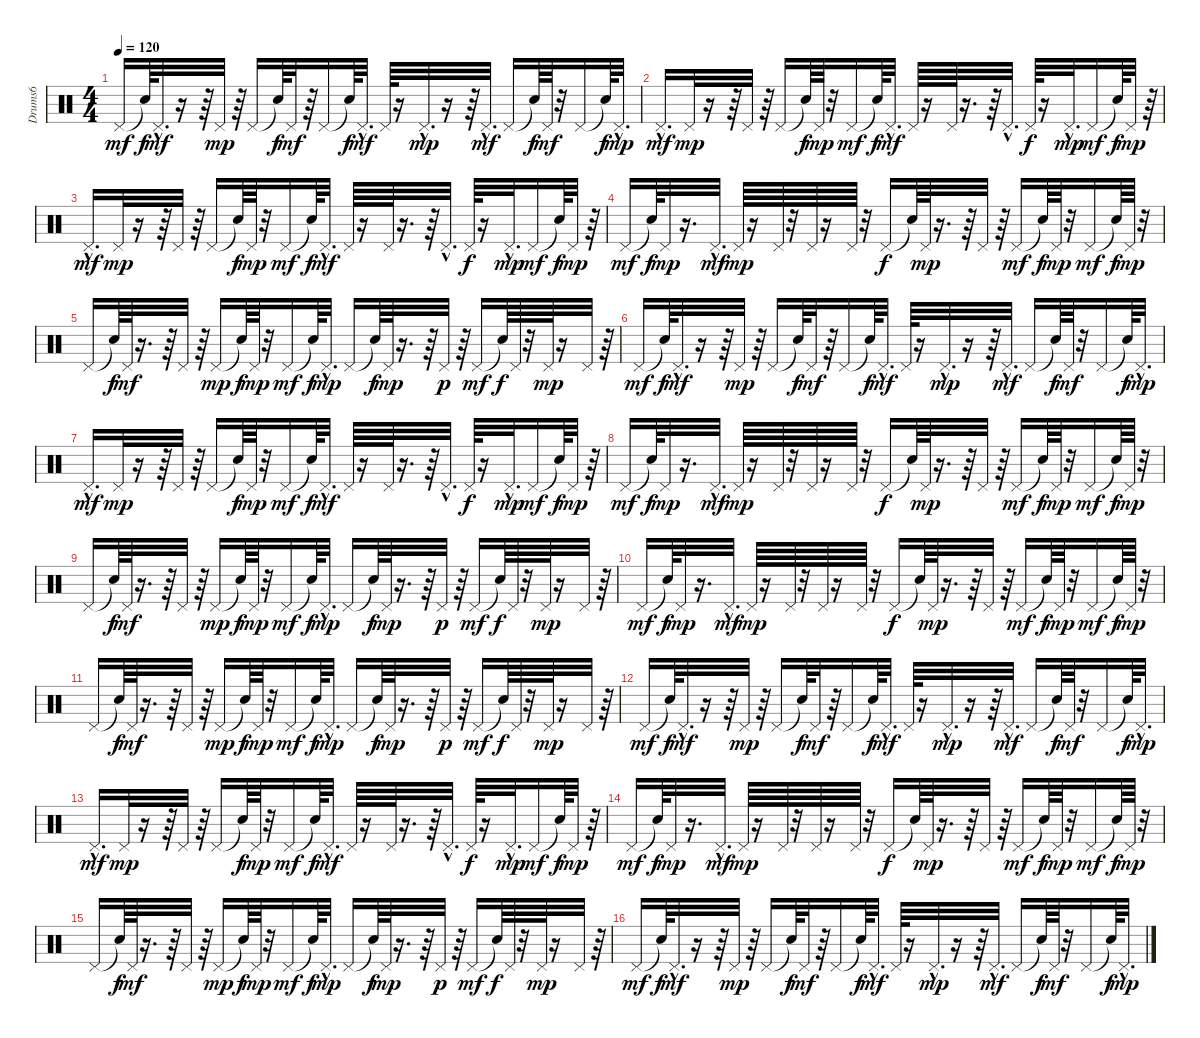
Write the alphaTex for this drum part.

\track ("Drums6" "Drums6") {instrument percussion}
\staff {score}
\articulation defaults
\ts (4 4)
\tempo 120
\clef neutral
\ks c "Pedal Hi-Hat (hit)".16{dy mf} "Snare (hit)"{t}.64{dy f} "Pedal Hi-Hat (hit)"{hac}.32{d dy mf}
r.16 r.64 "Pedal Hi-Hat (hit)".32{dy mp} r.64 "Pedal Hi-Hat (hit)".16 "Snare (hit)"{t}.64{dy f} "Pedal Hi-Hat (hit)".32{dy mf} r.64 "Pedal Hi-Hat (hit)".16 "Snare (hit)"{t}.64{dy f} "Pedal Hi-Hat (hit)"{hac}.32{d dy mf} "Pedal Hi-Hat (hit)".64 r.16 "Pedal Hi-Hat (hit)"{hac}.32{d dy mp} r.16 r.64 "Pedal Hi-Hat (hit)"{hac}.32{d dy mf} "Pedal Hi-Hat (hit)".16 "Snare (hit)"{t}.64{dy f} "Pedal Hi-Hat (hit)".64{dy mf} r.32 "Pedal Hi-Hat (hit)".16 "Snare (hit)"{t}.64{dy f} "Pedal Hi-Hat (hit)"{hac}.32{d dy mp} |
"Pedal Hi-Hat (hit)"{hac}.16{d dy mf} "Pedal Hi-Hat (hit)".32{dy mp} r.16 r.64 "Pedal Hi-Hat (hit)".32 r.64 "Pedal Hi-Hat (hit)".16 "Snare (hit)"{t}.64{dy f} "Pedal Hi-Hat (hit)".64{dy mp} r.32 "Pedal Hi-Hat (hit)".16{dy mf} "Snare (hit)"{t}.64{dy f} "Pedal Hi-Hat (hit)"{hac}.32{d dy mf} "Pedal Hi-Hat (hit)".64 r.16 "Pedal Hi-Hat (hit)".64 r.16{d} r.64 "Pedal Hi-Hat (hit)"{hac}.32{d} "Pedal Hi-Hat (hit)".64{dy f} r.16 "Pedal Hi-Hat (hit)"{hac}.32{d dy mp} "Pedal Hi-Hat (hit)".16{dy mf} "Snare (hit)"{t}.64{dy f} "Pedal Hi-Hat (hit)".32{dy mp} r.64 |
"Pedal Hi-Hat (hit)"{hac}.16{d dy mf} "Pedal Hi-Hat (hit)".32{dy mp} r.16 r.64 "Pedal Hi-Hat (hit)".32 r.64 "Pedal Hi-Hat (hit)".16 "Snare (hit)"{t}.64{dy f} "Pedal Hi-Hat (hit)".64{dy mp} r.32 "Pedal Hi-Hat (hit)".16{dy mf} "Snare (hit)"{t}.64{dy f} "Pedal Hi-Hat (hit)"{hac}.32{d dy mf} "Pedal Hi-Hat (hit)".64 r.16 "Pedal Hi-Hat (hit)".64 r.16{d} r.64 "Pedal Hi-Hat (hit)"{hac}.32{d} "Pedal Hi-Hat (hit)".64{dy f} r.16 "Pedal Hi-Hat (hit)"{hac}.32{d dy mp} "Pedal Hi-Hat (hit)".16{dy mf} "Snare (hit)"{t}.64{dy f} "Pedal Hi-Hat (hit)".32{dy mp} r.64 |
"Pedal Hi-Hat (hit)".16{dy mf} "Snare (hit)"{t}.64{dy f} "Pedal Hi-Hat (hit)".32{dy mp} r.16{d} "Pedal Hi-Hat (hit)"{hac}.32{d dy mf} "Pedal Hi-Hat (hit)".64{dy mp} r.16 "Pedal Hi-Hat (hit)".64 r.32 "Pedal Hi-Hat (hit)".64 r.16 "Pedal Hi-Hat (hit)".64 r.32 "Pedal Hi-Hat (hit)".16{dy f} "Snare (hit)"{t}.64 "Pedal Hi-Hat (hit)".64{dy mp} r.16{d} r.64 "Pedal Hi-Hat (hit)".32 r.64 "Pedal Hi-Hat (hit)".16{dy mf} "Snare (hit)"{t}.64{dy f} "Pedal Hi-Hat (hit)".64{dy mp} r.32 "Pedal Hi-Hat (hit)".16{dy mf} "Snare (hit)"{t}.64{dy f} "Pedal Hi-Hat (hit)".64{dy mp} r.32 |
"Pedal Hi-Hat (hit)".16 "Snare (hit)"{t}.64{dy f} "Pedal Hi-Hat (hit)".64{dy mf} r.16{d} r.64 "Pedal Hi-Hat (hit)".32 r.64 "Pedal Hi-Hat (hit)".16{dy mp} "Snare (hit)"{t}.64{dy f} "Pedal Hi-Hat (hit)".64{dy mp} r.32 "Pedal Hi-Hat (hit)".16{dy mf} "Snare (hit)"{t}.64{dy f} "Pedal Hi-Hat (hit)"{hac}.32{d dy mp} "Pedal Hi-Hat (hit)".16 "Snare (hit)"{t}.64{dy f} "Pedal Hi-Hat (hit)".64{dy mp} r.16{d} r.64 "Pedal Hi-Hat (hit)".32{dy p} r.64 "Pedal Hi-Hat (hit)".16{dy mf} "Snare (hit)"{t}.64{dy f} "Pedal Hi-Hat (hit)".64 r.32 "Pedal Hi-Hat (hit)".64{dy mp} r.16 "Pedal Hi-Hat (hit)".32 r.64 |
"Pedal Hi-Hat (hit)".16{dy mf} "Snare (hit)"{t}.64{dy f} "Pedal Hi-Hat (hit)"{hac}.32{d dy mf} r.16 r.64 "Pedal Hi-Hat (hit)".32{dy mp} r.64 "Pedal Hi-Hat (hit)".16 "Snare (hit)"{t}.64{dy f} "Pedal Hi-Hat (hit)".32{dy mf} r.64 "Pedal Hi-Hat (hit)".16 "Snare (hit)"{t}.64{dy f} "Pedal Hi-Hat (hit)"{hac}.32{d dy mf} "Pedal Hi-Hat (hit)".64 r.16 "Pedal Hi-Hat (hit)"{hac}.32{d dy mp} r.16 r.64 "Pedal Hi-Hat (hit)"{hac}.32{d dy mf} "Pedal Hi-Hat (hit)".16 "Snare (hit)"{t}.64{dy f} "Pedal Hi-Hat (hit)".64{dy mf} r.32 "Pedal Hi-Hat (hit)".16 "Snare (hit)"{t}.64{dy f} "Pedal Hi-Hat (hit)"{hac}.32{d dy mp} |
"Pedal Hi-Hat (hit)"{hac}.16{d dy mf} "Pedal Hi-Hat (hit)".32{dy mp} r.16 r.64 "Pedal Hi-Hat (hit)".32 r.64 "Pedal Hi-Hat (hit)".16 "Snare (hit)"{t}.64{dy f} "Pedal Hi-Hat (hit)".64{dy mp} r.32 "Pedal Hi-Hat (hit)".16{dy mf} "Snare (hit)"{t}.64{dy f} "Pedal Hi-Hat (hit)"{hac}.32{d dy mf} "Pedal Hi-Hat (hit)".64 r.16 "Pedal Hi-Hat (hit)".64 r.16{d} r.64 "Pedal Hi-Hat (hit)"{hac}.32{d} "Pedal Hi-Hat (hit)".64{dy f} r.16 "Pedal Hi-Hat (hit)"{hac}.32{d dy mp} "Pedal Hi-Hat (hit)".16{dy mf} "Snare (hit)"{t}.64{dy f} "Pedal Hi-Hat (hit)".32{dy mp} r.64 |
"Pedal Hi-Hat (hit)".16{dy mf} "Snare (hit)"{t}.64{dy f} "Pedal Hi-Hat (hit)".32{dy mp} r.16{d} "Pedal Hi-Hat (hit)"{hac}.32{d dy mf} "Pedal Hi-Hat (hit)".64{dy mp} r.16 "Pedal Hi-Hat (hit)".64 r.32 "Pedal Hi-Hat (hit)".64 r.16 "Pedal Hi-Hat (hit)".64 r.32 "Pedal Hi-Hat (hit)".16{dy f} "Snare (hit)"{t}.64 "Pedal Hi-Hat (hit)".64{dy mp} r.16{d} r.64 "Pedal Hi-Hat (hit)".32 r.64 "Pedal Hi-Hat (hit)".16{dy mf} "Snare (hit)"{t}.64{dy f} "Pedal Hi-Hat (hit)".64{dy mp} r.32 "Pedal Hi-Hat (hit)".16{dy mf} "Snare (hit)"{t}.64{dy f} "Pedal Hi-Hat (hit)".64{dy mp} r.32 |
"Pedal Hi-Hat (hit)".16 "Snare (hit)"{t}.64{dy f} "Pedal Hi-Hat (hit)".64{dy mf} r.16{d} r.64 "Pedal Hi-Hat (hit)".32 r.64 "Pedal Hi-Hat (hit)".16{dy mp} "Snare (hit)"{t}.64{dy f} "Pedal Hi-Hat (hit)".64{dy mp} r.32 "Pedal Hi-Hat (hit)".16{dy mf} "Snare (hit)"{t}.64{dy f} "Pedal Hi-Hat (hit)"{hac}.32{d dy mp} "Pedal Hi-Hat (hit)".16 "Snare (hit)"{t}.64{dy f} "Pedal Hi-Hat (hit)".64{dy mp} r.16{d} r.64 "Pedal Hi-Hat (hit)".32{dy p} r.64 "Pedal Hi-Hat (hit)".16{dy mf} "Snare (hit)"{t}.64{dy f} "Pedal Hi-Hat (hit)".64 r.32 "Pedal Hi-Hat (hit)".64{dy mp} r.16 "Pedal Hi-Hat (hit)".32 r.64 |
"Pedal Hi-Hat (hit)".16{dy mf} "Snare (hit)"{t}.64{dy f} "Pedal Hi-Hat (hit)".32{dy mp} r.16{d} "Pedal Hi-Hat (hit)"{hac}.32{d dy mf} "Pedal Hi-Hat (hit)".64{dy mp} r.16 "Pedal Hi-Hat (hit)".64 r.32 "Pedal Hi-Hat (hit)".64 r.16 "Pedal Hi-Hat (hit)".64 r.32 "Pedal Hi-Hat (hit)".16{dy f} "Snare (hit)"{t}.64 "Pedal Hi-Hat (hit)".64{dy mp} r.16{d} r.64 "Pedal Hi-Hat (hit)".32 r.64 "Pedal Hi-Hat (hit)".16{dy mf} "Snare (hit)"{t}.64{dy f} "Pedal Hi-Hat (hit)".64{dy mp} r.32 "Pedal Hi-Hat (hit)".16{dy mf} "Snare (hit)"{t}.64{dy f} "Pedal Hi-Hat (hit)".64{dy mp} r.32 |
"Pedal Hi-Hat (hit)".16 "Snare (hit)"{t}.64{dy f} "Pedal Hi-Hat (hit)".64{dy mf} r.16{d} r.64 "Pedal Hi-Hat (hit)".32 r.64 "Pedal Hi-Hat (hit)".16{dy mp} "Snare (hit)"{t}.64{dy f} "Pedal Hi-Hat (hit)".64{dy mp} r.32 "Pedal Hi-Hat (hit)".16{dy mf} "Snare (hit)"{t}.64{dy f} "Pedal Hi-Hat (hit)"{hac}.32{d dy mp} "Pedal Hi-Hat (hit)".16 "Snare (hit)"{t}.64{dy f} "Pedal Hi-Hat (hit)".64{dy mp} r.16{d} r.64 "Pedal Hi-Hat (hit)".32{dy p} r.64 "Pedal Hi-Hat (hit)".16{dy mf} "Snare (hit)"{t}.64{dy f} "Pedal Hi-Hat (hit)".64 r.32 "Pedal Hi-Hat (hit)".64{dy mp} r.16 "Pedal Hi-Hat (hit)".32 r.64 |
"Pedal Hi-Hat (hit)".16{dy mf} "Snare (hit)"{t}.64{dy f} "Pedal Hi-Hat (hit)"{hac}.32{d dy mf} r.16 r.64 "Pedal Hi-Hat (hit)".32{dy mp} r.64 "Pedal Hi-Hat (hit)".16 "Snare (hit)"{t}.64{dy f} "Pedal Hi-Hat (hit)".32{dy mf} r.64 "Pedal Hi-Hat (hit)".16 "Snare (hit)"{t}.64{dy f} "Pedal Hi-Hat (hit)"{hac}.32{d dy mf} "Pedal Hi-Hat (hit)".64 r.16 "Pedal Hi-Hat (hit)"{hac}.32{d dy mp} r.16 r.64 "Pedal Hi-Hat (hit)"{hac}.32{d dy mf} "Pedal Hi-Hat (hit)".16 "Snare (hit)"{t}.64{dy f} "Pedal Hi-Hat (hit)".64{dy mf} r.32 "Pedal Hi-Hat (hit)".16 "Snare (hit)"{t}.64{dy f} "Pedal Hi-Hat (hit)"{hac}.32{d dy mp} |
"Pedal Hi-Hat (hit)"{hac}.16{d dy mf} "Pedal Hi-Hat (hit)".32{dy mp} r.16 r.64 "Pedal Hi-Hat (hit)".32 r.64 "Pedal Hi-Hat (hit)".16 "Snare (hit)"{t}.64{dy f} "Pedal Hi-Hat (hit)".64{dy mp} r.32 "Pedal Hi-Hat (hit)".16{dy mf} "Snare (hit)"{t}.64{dy f} "Pedal Hi-Hat (hit)"{hac}.32{d dy mf} "Pedal Hi-Hat (hit)".64 r.16 "Pedal Hi-Hat (hit)".64 r.16{d} r.64 "Pedal Hi-Hat (hit)"{hac}.32{d} "Pedal Hi-Hat (hit)".64{dy f} r.16 "Pedal Hi-Hat (hit)"{hac}.32{d dy mp} "Pedal Hi-Hat (hit)".16{dy mf} "Snare (hit)"{t}.64{dy f} "Pedal Hi-Hat (hit)".32{dy mp} r.64 |
"Pedal Hi-Hat (hit)".16{dy mf} "Snare (hit)"{t}.64{dy f} "Pedal Hi-Hat (hit)".32{dy mp} r.16{d} "Pedal Hi-Hat (hit)"{hac}.32{d dy mf} "Pedal Hi-Hat (hit)".64{dy mp} r.16 "Pedal Hi-Hat (hit)".64 r.32 "Pedal Hi-Hat (hit)".64 r.16 "Pedal Hi-Hat (hit)".64 r.32 "Pedal Hi-Hat (hit)".16{dy f} "Snare (hit)"{t}.64 "Pedal Hi-Hat (hit)".64{dy mp} r.16{d} r.64 "Pedal Hi-Hat (hit)".32 r.64 "Pedal Hi-Hat (hit)".16{dy mf} "Snare (hit)"{t}.64{dy f} "Pedal Hi-Hat (hit)".64{dy mp} r.32 "Pedal Hi-Hat (hit)".16{dy mf} "Snare (hit)"{t}.64{dy f} "Pedal Hi-Hat (hit)".64{dy mp} r.32 |
"Pedal Hi-Hat (hit)".16 "Snare (hit)"{t}.64{dy f} "Pedal Hi-Hat (hit)".64{dy mf} r.16{d} r.64 "Pedal Hi-Hat (hit)".32 r.64 "Pedal Hi-Hat (hit)".16{dy mp} "Snare (hit)"{t}.64{dy f} "Pedal Hi-Hat (hit)".64{dy mp} r.32 "Pedal Hi-Hat (hit)".16{dy mf} "Snare (hit)"{t}.64{dy f} "Pedal Hi-Hat (hit)"{hac}.32{d dy mp} "Pedal Hi-Hat (hit)".16 "Snare (hit)"{t}.64{dy f} "Pedal Hi-Hat (hit)".64{dy mp} r.16{d} r.64 "Pedal Hi-Hat (hit)".32{dy p} r.64 "Pedal Hi-Hat (hit)".16{dy mf} "Snare (hit)"{t}.64{dy f} "Pedal Hi-Hat (hit)".64 r.32 "Pedal Hi-Hat (hit)".64{dy mp} r.16 "Pedal Hi-Hat (hit)".32 r.64 |
"Pedal Hi-Hat (hit)".16{dy mf} "Snare (hit)"{t}.64{dy f} "Pedal Hi-Hat (hit)"{hac}.32{d dy mf} r.16 r.64 "Pedal Hi-Hat (hit)".32{dy mp} r.64 "Pedal Hi-Hat (hit)".16 "Snare (hit)"{t}.64{dy f} "Pedal Hi-Hat (hit)".32{dy mf} r.64 "Pedal Hi-Hat (hit)".16 "Snare (hit)"{t}.64{dy f} "Pedal Hi-Hat (hit)"{hac}.32{d dy mf} "Pedal Hi-Hat (hit)".64 r.16 "Pedal Hi-Hat (hit)"{hac}.32{d dy mp} r.16 r.64 "Pedal Hi-Hat (hit)"{hac}.32{d dy mf} "Pedal Hi-Hat (hit)".16 "Snare (hit)"{t}.64{dy f} "Pedal Hi-Hat (hit)".64{dy mf} r.32 "Pedal Hi-Hat (hit)".16 "Snare (hit)"{t}.64{dy f} "Pedal Hi-Hat (hit)"{hac}.32{d dy mp}
